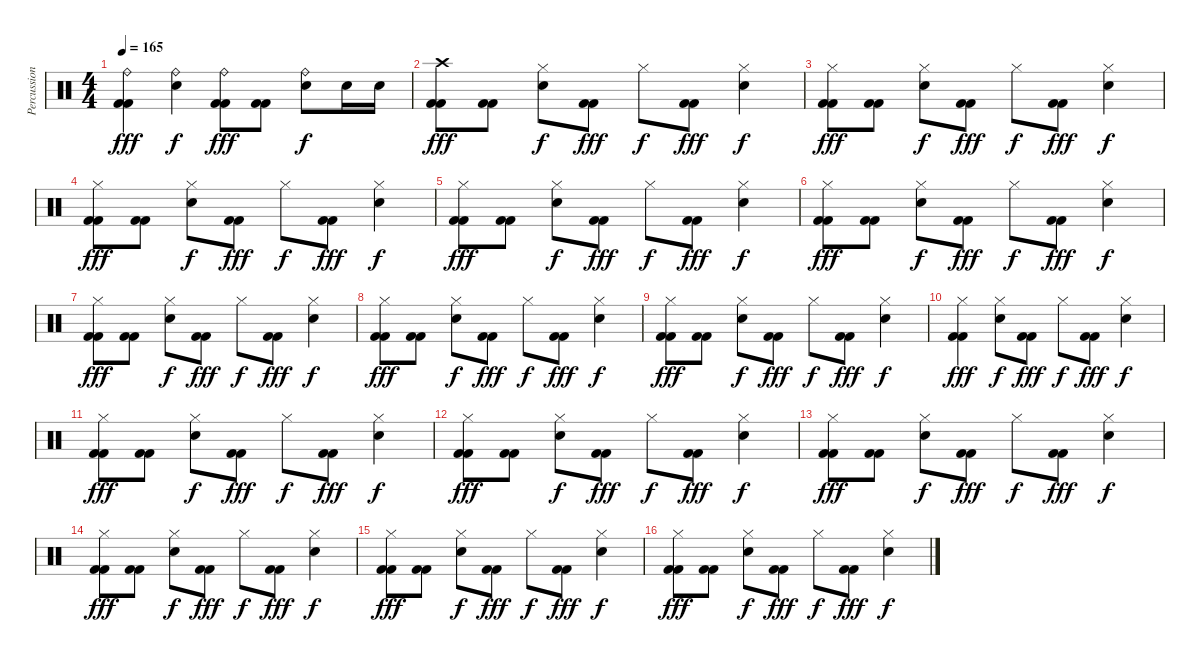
\track ("Percussions" "Percussion") {instrument percussion}
\staff {score}
\articulation defaults
\ts (4 4)
\tempo 165
\clef neutral
\ks c
("Ride (bell)" "Kick (hit) 2" "Kick (hit) 2").4{dy fff} ("Ride (bell)" "Electric Snare (hit)").4{dy f} ("Ride (bell)" "Kick (hit) 2" "Kick (hit) 2").8{dy fff} ("Kick (hit) 2" "Kick (hit) 2").8 ("Ride (bell)" "Electric Snare (hit)").8{dy f} "Electric Snare (hit)".16 "Electric Snare (hit)".16 |
("Crash high (hit)" "Kick (hit) 2" "Kick (hit) 2").8{dy fff} ("Kick (hit) 2" "Kick (hit) 2").8 ("Hi-Hat (closed)" "Electric Snare (hit)").8{dy f} ("Kick (hit) 2" "Kick (hit) 2").8{dy fff} "Hi-Hat (closed)".8{dy f} ("Kick (hit) 2" "Kick (hit) 2").8{dy fff} ("Hi-Hat (closed)" "Electric Snare (hit)").4{dy f} |
("Hi-Hat (closed)" "Kick (hit) 2" "Kick (hit) 2").8{dy fff} ("Kick (hit) 2" "Kick (hit) 2").8 ("Hi-Hat (closed)" "Electric Snare (hit)").8{dy f} ("Kick (hit) 2" "Kick (hit) 2").8{dy fff} "Hi-Hat (closed)".8{dy f} ("Kick (hit) 2" "Kick (hit) 2").8{dy fff} ("Hi-Hat (closed)" "Electric Snare (hit)").4{dy f} |
("Hi-Hat (closed)" "Kick (hit) 2" "Kick (hit) 2").8{dy fff} ("Kick (hit) 2" "Kick (hit) 2").8 ("Hi-Hat (closed)" "Electric Snare (hit)").8{dy f} ("Kick (hit) 2" "Kick (hit) 2").8{dy fff} "Hi-Hat (closed)".8{dy f} ("Kick (hit) 2" "Kick (hit) 2").8{dy fff} ("Hi-Hat (closed)" "Electric Snare (hit)").4{dy f} |
("Hi-Hat (closed)" "Kick (hit) 2" "Kick (hit) 2").8{dy fff} ("Kick (hit) 2" "Kick (hit) 2").8 ("Hi-Hat (closed)" "Electric Snare (hit)").8{dy f} ("Kick (hit) 2" "Kick (hit) 2").8{dy fff} "Hi-Hat (closed)".8{dy f} ("Kick (hit) 2" "Kick (hit) 2").8{dy fff} ("Hi-Hat (closed)" "Electric Snare (hit)").4{dy f} |
("Hi-Hat (closed)" "Kick (hit) 2" "Kick (hit) 2").8{dy fff} ("Kick (hit) 2" "Kick (hit) 2").8 ("Hi-Hat (closed)" "Electric Snare (hit)").8{dy f} ("Kick (hit) 2" "Kick (hit) 2").8{dy fff} "Hi-Hat (closed)".8{dy f} ("Kick (hit) 2" "Kick (hit) 2").8{dy fff} ("Hi-Hat (closed)" "Electric Snare (hit)").4{dy f} |
("Hi-Hat (closed)" "Kick (hit) 2" "Kick (hit) 2").8{dy fff} ("Kick (hit) 2" "Kick (hit) 2").8 ("Hi-Hat (closed)" "Electric Snare (hit)").8{dy f} ("Kick (hit) 2" "Kick (hit) 2").8{dy fff} "Hi-Hat (closed)".8{dy f} ("Kick (hit) 2" "Kick (hit) 2").8{dy fff} ("Hi-Hat (closed)" "Electric Snare (hit)").4{dy f} |
("Hi-Hat (closed)" "Kick (hit) 2" "Kick (hit) 2").8{dy fff} ("Kick (hit) 2" "Kick (hit) 2").8 ("Hi-Hat (closed)" "Electric Snare (hit)").8{dy f} ("Kick (hit) 2" "Kick (hit) 2").8{dy fff} "Hi-Hat (closed)".8{dy f} ("Kick (hit) 2" "Kick (hit) 2").8{dy fff} ("Hi-Hat (closed)" "Electric Snare (hit)").4{dy f} |
("Hi-Hat (closed)" "Kick (hit) 2" "Kick (hit) 2").8{dy fff} ("Kick (hit) 2" "Kick (hit) 2").8 ("Hi-Hat (closed)" "Electric Snare (hit)").8{dy f} ("Kick (hit) 2" "Kick (hit) 2").8{dy fff} "Hi-Hat (closed)".8{dy f} ("Kick (hit) 2" "Kick (hit) 2").8{dy fff} ("Hi-Hat (closed)" "Electric Snare (hit)").4{dy f} |
("Hi-Hat (closed)" "Kick (hit) 2" "Kick (hit) 2").4{dy fff} ("Hi-Hat (closed)" "Electric Snare (hit)").8{dy f} ("Kick (hit) 2" "Kick (hit) 2").8{dy fff} "Hi-Hat (closed)".8{dy f} ("Kick (hit) 2" "Kick (hit) 2").8{dy fff} ("Hi-Hat (closed)" "Electric Snare (hit)").4{dy f} |
("Hi-Hat (closed)" "Kick (hit) 2" "Kick (hit) 2").8{dy fff} ("Kick (hit) 2" "Kick (hit) 2").8 ("Hi-Hat (closed)" "Electric Snare (hit)").8{dy f} ("Kick (hit) 2" "Kick (hit) 2").8{dy fff} "Hi-Hat (closed)".8{dy f} ("Kick (hit) 2" "Kick (hit) 2").8{dy fff} ("Hi-Hat (closed)" "Electric Snare (hit)").4{dy f} |
("Hi-Hat (closed)" "Kick (hit) 2" "Kick (hit) 2").8{dy fff} ("Kick (hit) 2" "Kick (hit) 2").8 ("Hi-Hat (closed)" "Electric Snare (hit)").8{dy f} ("Kick (hit) 2" "Kick (hit) 2").8{dy fff} "Hi-Hat (closed)".8{dy f} ("Kick (hit) 2" "Kick (hit) 2").8{dy fff} ("Hi-Hat (closed)" "Electric Snare (hit)").4{dy f} |
("Hi-Hat (closed)" "Kick (hit) 2" "Kick (hit) 2").8{dy fff} ("Kick (hit) 2" "Kick (hit) 2").8 ("Hi-Hat (closed)" "Electric Snare (hit)").8{dy f} ("Kick (hit) 2" "Kick (hit) 2").8{dy fff} "Hi-Hat (closed)".8{dy f} ("Kick (hit) 2" "Kick (hit) 2").8{dy fff} ("Hi-Hat (closed)" "Electric Snare (hit)").4{dy f} |
("Hi-Hat (closed)" "Kick (hit) 2" "Kick (hit) 2").8{dy fff} ("Kick (hit) 2" "Kick (hit) 2").8 ("Hi-Hat (closed)" "Electric Snare (hit)").8{dy f} ("Kick (hit) 2" "Kick (hit) 2").8{dy fff} "Hi-Hat (closed)".8{dy f} ("Kick (hit) 2" "Kick (hit) 2").8{dy fff} ("Hi-Hat (closed)" "Electric Snare (hit)").4{dy f} |
("Hi-Hat (closed)" "Kick (hit) 2" "Kick (hit) 2").8{dy fff} ("Kick (hit) 2" "Kick (hit) 2").8 ("Hi-Hat (closed)" "Electric Snare (hit)").8{dy f} ("Kick (hit) 2" "Kick (hit) 2").8{dy fff} "Hi-Hat (closed)".8{dy f} ("Kick (hit) 2" "Kick (hit) 2").8{dy fff} ("Hi-Hat (closed)" "Electric Snare (hit)").4{dy f} |
("Hi-Hat (closed)" "Kick (hit) 2" "Kick (hit) 2").8{dy fff} ("Kick (hit) 2" "Kick (hit) 2").8 ("Hi-Hat (closed)" "Electric Snare (hit)").8{dy f} ("Kick (hit) 2" "Kick (hit) 2").8{dy fff} "Hi-Hat (closed)".8{dy f} ("Kick (hit) 2" "Kick (hit) 2").8{dy fff} ("Hi-Hat (closed)" "Electric Snare (hit)").4{dy f}
